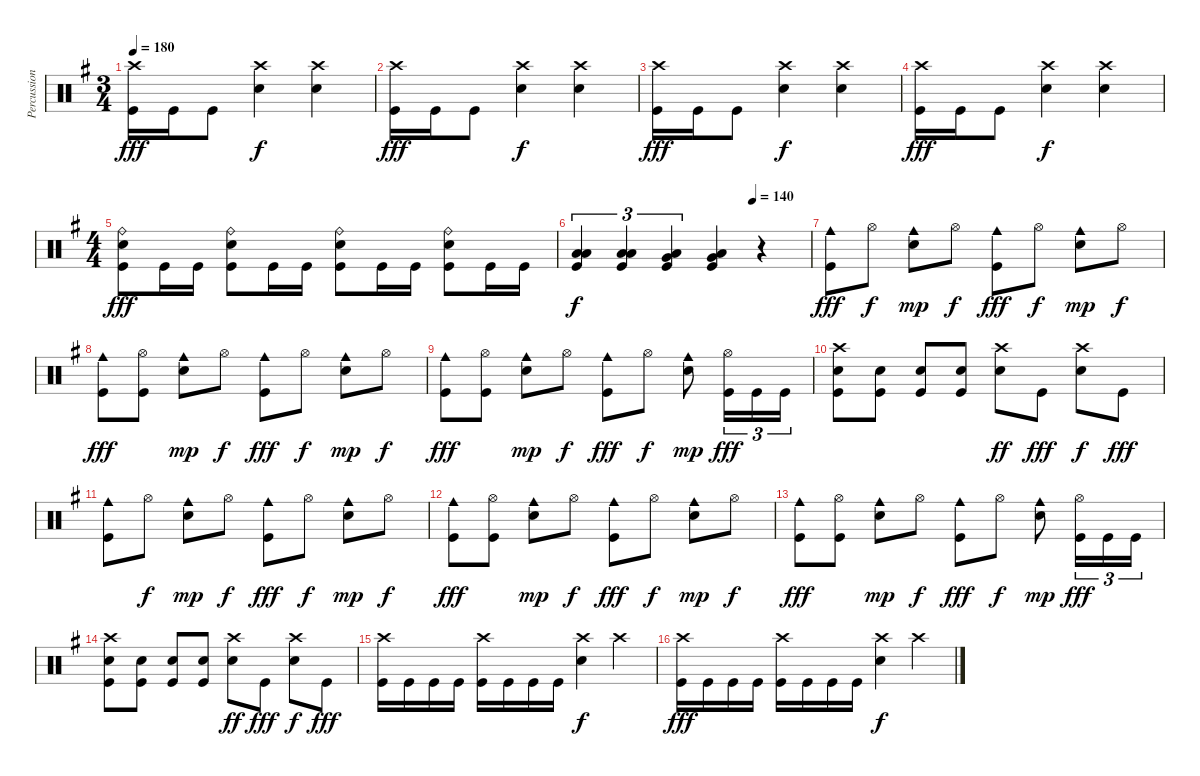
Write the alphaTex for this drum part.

\track ("Percussion" "Percussion") {instrument percussion}
\staff {score}
\articulation defaults
\ts (3 4)
\tempo 180
\clef neutral
\ks eminor
("Crash high (hit)" "Kick (hit)").16{dy fff} "Kick (hit)".16 "Kick (hit)".8 ("Crash high (hit)" "Snare (hit) 2").4{dy f} ("Crash high (hit)" "Snare (hit) 2").4 |
("Crash high (hit)" "Kick (hit)").16{dy fff} "Kick (hit)".16 "Kick (hit)".8 ("Crash high (hit)" "Snare (hit) 2").4{dy f} ("Crash high (hit)" "Snare (hit) 2").4 |
("Crash high (hit)" "Kick (hit)").16{dy fff} "Kick (hit)".16 "Kick (hit)".8 ("Crash high (hit)" "Snare (hit) 2").4{dy f} ("Crash high (hit)" "Snare (hit) 2").4 |
("Crash high (hit)" "Kick (hit)").16{dy fff} "Kick (hit)".16 "Kick (hit)".8 ("Crash high (hit)" "Snare (hit) 2").4{dy f} ("Crash high (hit)" "Snare (hit) 2").4 |
\ts (4 4)
("Ride (bell)" "Snare (hit) 2" "Kick (hit)").8{dy fff} "Kick (hit)".16 "Kick (hit)".16 ("Ride (bell)" "Snare (hit) 2" "Kick (hit)").8 "Kick (hit)".16 "Kick (hit)".16 ("Ride (bell)" "Snare (hit) 2" "Kick (hit)").8 "Kick (hit)".16 "Kick (hit)".16 ("Ride (bell)" "Snare (hit) 2" "Kick (hit)").8 "Kick (hit)".16 "Kick (hit)".16 |
\tempo (140 0.75)
("Low Tom (hit)" "Low Floor Tom (hit)" "Kick (hit)").4{tu (3 2) dy f} ("Low Tom (hit)" "Low Floor Tom (hit)" "Kick (hit)").4{tu (3 2)} ("Low Tom (hit)" "Very Low Tom (hit)" "Kick (hit)").4{tu (3 2)} ("Very Low Tom (hit)" "Low Floor Tom (hit)" "Kick (hit)").4 r.4 |
("Cowbell medium (hit)" "Kick (hit)").8{dy fff} "Hi-Hat (open)".8{dy f} ("Cowbell medium (hit)" "Snare (hit) 2").8{dy mp} "Hi-Hat (open)".8{dy f} ("Cowbell medium (hit)" "Kick (hit)").8{dy fff} "Hi-Hat (open)".8{dy f} ("Cowbell medium (hit)" "Snare (hit) 2").8{dy mp} "Hi-Hat (open)".8{dy f} |
("Cowbell medium (hit)" "Kick (hit)").8{dy fff} ("Hi-Hat (open)" "Kick (hit)").8 ("Cowbell medium (hit)" "Snare (hit) 2").8{dy mp} "Hi-Hat (open)".8{dy f} ("Cowbell medium (hit)" "Kick (hit)").8{dy fff} "Hi-Hat (open)".8{dy f} ("Cowbell medium (hit)" "Snare (hit) 2").8{dy mp} "Hi-Hat (open)".8{dy f} |
("Cowbell medium (hit)" "Kick (hit)").8{dy fff} ("Hi-Hat (open)" "Kick (hit)").8 ("Cowbell medium (hit)" "Snare (hit) 2").8{dy mp} "Hi-Hat (open)".8{dy f} ("Cowbell medium (hit)" "Kick (hit)").8{dy fff} "Hi-Hat (open)".8{dy f} ("Cowbell medium (hit)" "Snare (hit) 2").8{dy mp} ("Hi-Hat (open)" "Kick (hit)").16{tu (3 2) dy fff} "Kick (hit)".16{tu (3 2)} "Kick (hit)".16{tu (3 2)} |
("Crash high (hit)" "Snare (hit) 2" "Kick (hit)").8 ("Snare (hit) 2" "Kick (hit)").8 ("Snare (hit) 2" "Kick (hit)").8 ("Snare (hit) 2" "Kick (hit)").8 ("Crash high (hit)" "Snare (hit) 2").8{dy ff} "Kick (hit)".8{dy fff} ("Crash high (hit)" "Snare (hit) 2").8{dy f} "Kick (hit)".8{dy fff} |
("Cowbell medium (hit)" "Kick (hit)").8 "Hi-Hat (open)".8{dy f} ("Cowbell medium (hit)" "Snare (hit) 2").8{dy mp} "Hi-Hat (open)".8{dy f} ("Cowbell medium (hit)" "Kick (hit)").8{dy fff} "Hi-Hat (open)".8{dy f} ("Cowbell medium (hit)" "Snare (hit) 2").8{dy mp} "Hi-Hat (open)".8{dy f} |
("Cowbell medium (hit)" "Kick (hit)").8{dy fff} ("Hi-Hat (open)" "Kick (hit)").8 ("Cowbell medium (hit)" "Snare (hit) 2").8{dy mp} "Hi-Hat (open)".8{dy f} ("Cowbell medium (hit)" "Kick (hit)").8{dy fff} "Hi-Hat (open)".8{dy f} ("Cowbell medium (hit)" "Snare (hit) 2").8{dy mp} "Hi-Hat (open)".8{dy f} |
("Cowbell medium (hit)" "Kick (hit)").8{dy fff} ("Hi-Hat (open)" "Kick (hit)").8 ("Cowbell medium (hit)" "Snare (hit) 2").8{dy mp} "Hi-Hat (open)".8{dy f} ("Cowbell medium (hit)" "Kick (hit)").8{dy fff} "Hi-Hat (open)".8{dy f} ("Cowbell medium (hit)" "Snare (hit) 2").8{dy mp} ("Hi-Hat (open)" "Kick (hit)").16{tu (3 2) dy fff} "Kick (hit)".16{tu (3 2)} "Kick (hit)".16{tu (3 2)} |
("Crash high (hit)" "Snare (hit) 2" "Kick (hit)").8 ("Snare (hit) 2" "Kick (hit)").8 ("Snare (hit) 2" "Kick (hit)").8 ("Snare (hit) 2" "Kick (hit)").8 ("Crash high (hit)" "Snare (hit) 2").8{dy ff} "Kick (hit)".8{dy fff} ("Crash high (hit)" "Snare (hit) 2").8{dy f} "Kick (hit)".8{dy fff} |
("Crash high (hit)" "Kick (hit)").16 "Kick (hit)".16 "Kick (hit)".16 "Kick (hit)".16 ("Crash high (hit)" "Kick (hit)").16 "Kick (hit)".16 "Kick (hit)".16 "Kick (hit)".16 ("Crash high (hit)" "Snare (hit) 2").4{dy f} "Crash high (hit)".4 |
("Crash high (hit)" "Kick (hit)").16{dy fff} "Kick (hit)".16 "Kick (hit)".16 "Kick (hit)".16 ("Crash high (hit)" "Kick (hit)").16 "Kick (hit)".16 "Kick (hit)".16 "Kick (hit)".16 ("Crash high (hit)" "Snare (hit) 2").4{dy f} "Crash high (hit)".4
